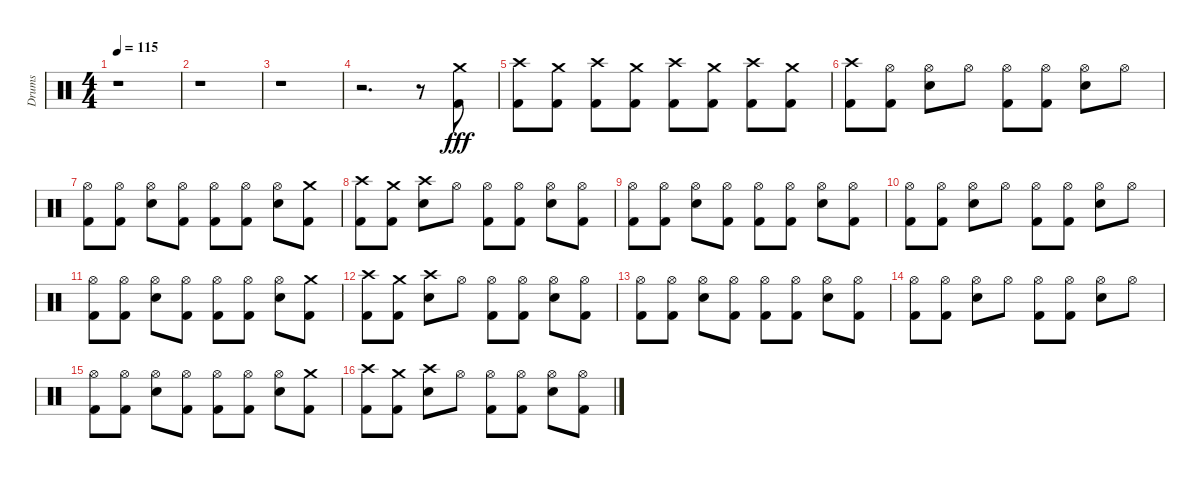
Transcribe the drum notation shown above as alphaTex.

\track ("Drums" "Drums") {instrument percussion}
\staff {score}
\articulation defaults
\ts (4 4)
\tempo 115
\clef neutral
\ks c
r.1{dy fff} |
r.1 |
r.1 |
r.2{d} r.8 ("Crash medium (hit)" "Kick (hit) 2").8 |
("Crash high (hit)" "Kick (hit) 2").8 ("Crash medium (hit)" "Kick (hit) 2").8 ("Crash high (hit)" "Kick (hit) 2").8 ("Crash medium (hit)" "Kick (hit) 2").8 ("Crash high (hit)" "Kick (hit) 2").8 ("Crash medium (hit)" "Kick (hit) 2").8 ("Crash high (hit)" "Kick (hit) 2").8 ("Crash medium (hit)" "Kick (hit) 2").8 |
("Kick (hit) 2" "Crash high (hit)").8 ("Hi-Hat (open)" "Kick (hit) 2").8 ("Hi-Hat (open)" "Electric Snare (hit)").8 "Hi-Hat (open)".8 ("Hi-Hat (open)" "Kick (hit) 2").8 ("Hi-Hat (open)" "Kick (hit) 2").8 ("Hi-Hat (open)" "Electric Snare (hit)").8 "Hi-Hat (open)".8 |
("Hi-Hat (open)" "Kick (hit) 2").8 ("Hi-Hat (open)" "Kick (hit) 2").8 ("Hi-Hat (open)" "Electric Snare (hit)").8 ("Kick (hit) 2" "Hi-Hat (open)").8 ("Hi-Hat (open)" "Kick (hit) 2").8 ("Hi-Hat (open)" "Kick (hit) 2").8 ("Hi-Hat (open)" "Electric Snare (hit)").8 ("Crash medium (hit)" "Kick (hit) 2").8 |
("Kick (hit) 2" "Crash high (hit)").8 ("Crash medium (hit)" "Kick (hit) 2").8 ("Crash high (hit)" "Electric Snare (hit)").8 "Hi-Hat (open)".8 ("Hi-Hat (open)" "Kick (hit) 2").8 ("Hi-Hat (open)" "Kick (hit) 2").8 ("Hi-Hat (open)" "Electric Snare (hit)").8 ("Hi-Hat (open)" "Kick (hit) 2").8 |
("Hi-Hat (open)" "Kick (hit) 2").8 ("Hi-Hat (open)" "Kick (hit) 2").8 ("Hi-Hat (open)" "Electric Snare (hit)").8 ("Hi-Hat (open)" "Kick (hit) 2").8 ("Hi-Hat (open)" "Kick (hit) 2").8 ("Hi-Hat (open)" "Kick (hit) 2").8 ("Hi-Hat (open)" "Electric Snare (hit)").8 ("Hi-Hat (open)" "Kick (hit) 2").8 |
("Kick (hit) 2" "Hi-Hat (open)").8 ("Hi-Hat (open)" "Kick (hit) 2").8 ("Hi-Hat (open)" "Electric Snare (hit)").8 "Hi-Hat (open)".8 ("Hi-Hat (open)" "Kick (hit) 2").8 ("Hi-Hat (open)" "Kick (hit) 2").8 ("Hi-Hat (open)" "Electric Snare (hit)").8 "Hi-Hat (open)".8 |
("Hi-Hat (open)" "Kick (hit) 2").8 ("Hi-Hat (open)" "Kick (hit) 2").8 ("Hi-Hat (open)" "Electric Snare (hit)").8 ("Kick (hit) 2" "Hi-Hat (open)").8 ("Hi-Hat (open)" "Kick (hit) 2").8 ("Hi-Hat (open)" "Kick (hit) 2").8 ("Hi-Hat (open)" "Electric Snare (hit)").8 ("Crash medium (hit)" "Kick (hit) 2").8 |
("Kick (hit) 2" "Crash high (hit)").8 ("Crash medium (hit)" "Kick (hit) 2").8 ("Crash high (hit)" "Electric Snare (hit)").8 "Hi-Hat (open)".8 ("Hi-Hat (open)" "Kick (hit) 2").8 ("Hi-Hat (open)" "Kick (hit) 2").8 ("Hi-Hat (open)" "Electric Snare (hit)").8 ("Hi-Hat (open)" "Kick (hit) 2").8 |
("Hi-Hat (open)" "Kick (hit) 2").8 ("Hi-Hat (open)" "Kick (hit) 2").8 ("Hi-Hat (open)" "Electric Snare (hit)").8 ("Hi-Hat (open)" "Kick (hit) 2").8 ("Hi-Hat (open)" "Kick (hit) 2").8 ("Hi-Hat (open)" "Kick (hit) 2").8 ("Hi-Hat (open)" "Electric Snare (hit)").8 ("Hi-Hat (open)" "Kick (hit) 2").8 |
("Kick (hit) 2" "Hi-Hat (open)").8 ("Hi-Hat (open)" "Kick (hit) 2").8 ("Hi-Hat (open)" "Electric Snare (hit)").8 "Hi-Hat (open)".8 ("Hi-Hat (open)" "Kick (hit) 2").8 ("Hi-Hat (open)" "Kick (hit) 2").8 ("Hi-Hat (open)" "Electric Snare (hit)").8 "Hi-Hat (open)".8 |
("Hi-Hat (open)" "Kick (hit) 2").8 ("Hi-Hat (open)" "Kick (hit) 2").8 ("Hi-Hat (open)" "Electric Snare (hit)").8 ("Kick (hit) 2" "Hi-Hat (open)").8 ("Hi-Hat (open)" "Kick (hit) 2").8 ("Hi-Hat (open)" "Kick (hit) 2").8 ("Hi-Hat (open)" "Electric Snare (hit)").8 ("Crash medium (hit)" "Kick (hit) 2").8 |
("Kick (hit) 2" "Crash high (hit)").8 ("Crash medium (hit)" "Kick (hit) 2").8 ("Crash high (hit)" "Electric Snare (hit)").8 "Hi-Hat (open)".8 ("Hi-Hat (open)" "Kick (hit) 2").8 ("Hi-Hat (open)" "Kick (hit) 2").8 ("Hi-Hat (open)" "Electric Snare (hit)").8 ("Hi-Hat (open)" "Kick (hit) 2").8
